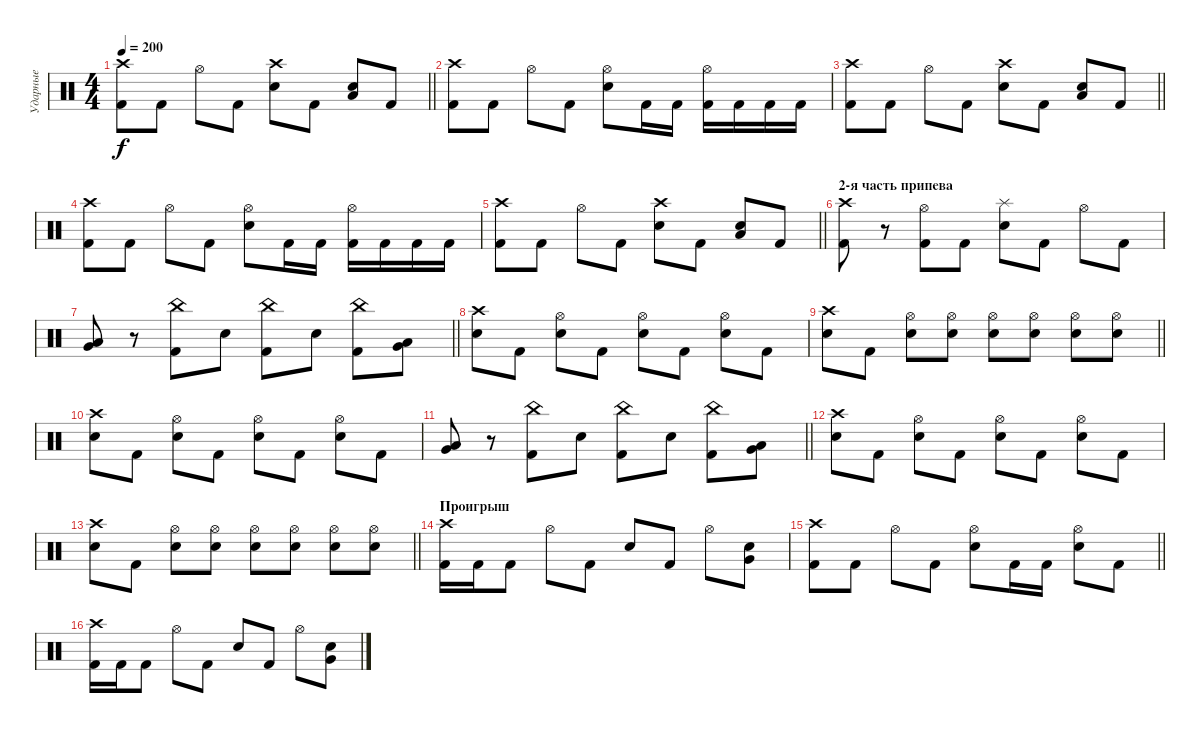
\track ("Ударные" "Ударные") {instrument percussion}
\staff {score}
\articulation defaults
\ts (4 4)
\tempo 200
\clef neutral
\barLineRight lightlight
\ks c
("Kick (hit) 2" "Crash high (hit)").8{dy f} "Kick (hit) 2".8 "Hi-Hat (open)".8 "Kick (hit) 2".8 ("Electric Snare (hit)" "Crash high (hit)").8 "Kick (hit) 2".8 ("Electric Snare (hit)" "Low Floor Tom (hit)").8 "Kick (hit) 2".8 |
("Kick (hit) 2" "Crash high (hit)").8 "Kick (hit) 2".8 "Hi-Hat (open)".8 "Kick (hit) 2".8 ("Electric Snare (hit)" "Hi-Hat (open)").8 "Kick (hit) 2".16 "Kick (hit) 2".16 ("Kick (hit) 2" "Hi-Hat (open)").16 "Kick (hit) 2".16 "Kick (hit) 2".16 "Kick (hit) 2".16 |
\barLineRight lightlight
("Kick (hit) 2" "Crash high (hit)").8 "Kick (hit) 2".8 "Hi-Hat (open)".8 "Kick (hit) 2".8 ("Electric Snare (hit)" "Crash high (hit)").8 "Kick (hit) 2".8 ("Electric Snare (hit)" "Low Floor Tom (hit)").8 "Kick (hit) 2".8 |
("Kick (hit) 2" "Crash high (hit)").8 "Kick (hit) 2".8 "Hi-Hat (open)".8 "Kick (hit) 2".8 ("Electric Snare (hit)" "Hi-Hat (open)").8 "Kick (hit) 2".16 "Kick (hit) 2".16 ("Kick (hit) 2" "Hi-Hat (open)").16 "Kick (hit) 2".16 "Kick (hit) 2".16 "Kick (hit) 2".16 |
\barLineRight lightlight
("Kick (hit) 2" "Crash high (hit)").8 "Kick (hit) 2".8 "Hi-Hat (open)".8 "Kick (hit) 2".8 ("Electric Snare (hit)" "Crash high (hit)").8 "Kick (hit) 2".8 ("Electric Snare (hit)" "Low Floor Tom (hit)").8 "Kick (hit) 2".8 |
\section ("" "2-я часть припева")
("Kick (hit) 2" "Crash high (hit)").8 r.8 ("Kick (hit) 2" "Hi-Hat (open)").8 "Kick (hit) 2".8 ("Electric Snare (hit)" "Splash (hit)").8 "Kick (hit) 2".8 "Hi-Hat (open)".8 "Kick (hit) 2".8 |
\barLineRight lightlight
("Very Low Tom (hit)" "Low Floor Tom (hit)").8 r.8 ("Kick (hit) 2" "China (hit)").8 "Electric Snare (hit)".8 ("Kick (hit) 2" "China (hit)").8 "Electric Snare (hit)".8 ("Kick (hit) 2" "China (hit)").8 ("Low Floor Tom (hit)" "Very Low Tom (hit)").8 |
("Electric Snare (hit)" "Crash high (hit)").8 "Kick (hit) 2".8 ("Electric Snare (hit)" "Hi-Hat (open)").8 "Kick (hit) 2".8 ("Hi-Hat (open)" "Electric Snare (hit)").8 "Kick (hit) 2".8 ("Electric Snare (hit)" "Hi-Hat (open)").8 "Kick (hit) 2".8 |
\barLineRight lightlight
("Electric Snare (hit)" "Crash high (hit)").8 "Kick (hit) 2".8 ("Electric Snare (hit)" "Hi-Hat (open)").8 ("Hi-Hat (open)" "Electric Snare (hit)").8 ("Hi-Hat (open)" "Electric Snare (hit)").8 ("Hi-Hat (open)" "Electric Snare (hit)").8 ("Electric Snare (hit)" "Hi-Hat (open)").8 ("Hi-Hat (open)" "Electric Snare (hit)").8 |
("Electric Snare (hit)" "Crash high (hit)").8 "Kick (hit) 2".8 ("Electric Snare (hit)" "Hi-Hat (open)").8 "Kick (hit) 2".8 ("Hi-Hat (open)" "Electric Snare (hit)").8 "Kick (hit) 2".8 ("Electric Snare (hit)" "Hi-Hat (open)").8 "Kick (hit) 2".8 |
\barLineRight lightlight
("Very Low Tom (hit)" "Low Floor Tom (hit)").8 r.8 ("Kick (hit) 2" "China (hit)").8 "Electric Snare (hit)".8 ("Kick (hit) 2" "China (hit)").8 "Electric Snare (hit)".8 ("Kick (hit) 2" "China (hit)").8 ("Low Floor Tom (hit)" "Very Low Tom (hit)").8 |
("Electric Snare (hit)" "Crash high (hit)").8 "Kick (hit) 2".8 ("Electric Snare (hit)" "Hi-Hat (open)").8 "Kick (hit) 2".8 ("Hi-Hat (open)" "Electric Snare (hit)").8 "Kick (hit) 2".8 ("Electric Snare (hit)" "Hi-Hat (open)").8 "Kick (hit) 2".8 |
\barLineRight lightlight
("Electric Snare (hit)" "Crash high (hit)").8 "Kick (hit) 2".8 ("Electric Snare (hit)" "Hi-Hat (open)").8 ("Hi-Hat (open)" "Electric Snare (hit)").8 ("Hi-Hat (open)" "Electric Snare (hit)").8 ("Hi-Hat (open)" "Electric Snare (hit)").8 ("Electric Snare (hit)" "Hi-Hat (open)").8 ("Hi-Hat (open)" "Electric Snare (hit)").8 |
\section ("" "Проигрыш")
("Kick (hit) 2" "Crash high (hit)").16 "Kick (hit) 2".16 "Kick (hit) 2".8 "Hi-Hat (open)".8 "Kick (hit) 2".8 "Electric Snare (hit)".8 "Kick (hit) 2".8 "Hi-Hat (open)".8 ("Very Low Tom (hit)" "Electric Snare (hit)").8 |
\barLineRight lightlight
("Kick (hit) 2" "Crash high (hit)").8 "Kick (hit) 2".8 "Hi-Hat (open)".8 "Kick (hit) 2".8 ("Hi-Hat (open)" "Electric Snare (hit)").8 "Kick (hit) 2".16 "Kick (hit) 2".16 ("Hi-Hat (open)" "Electric Snare (hit)").8 "Kick (hit) 2".8 |
("Kick (hit) 2" "Crash high (hit)").16 "Kick (hit) 2".16 "Kick (hit) 2".8 "Hi-Hat (open)".8 "Kick (hit) 2".8 "Electric Snare (hit)".8 "Kick (hit) 2".8 "Hi-Hat (open)".8 ("Very Low Tom (hit)" "Electric Snare (hit)").8
